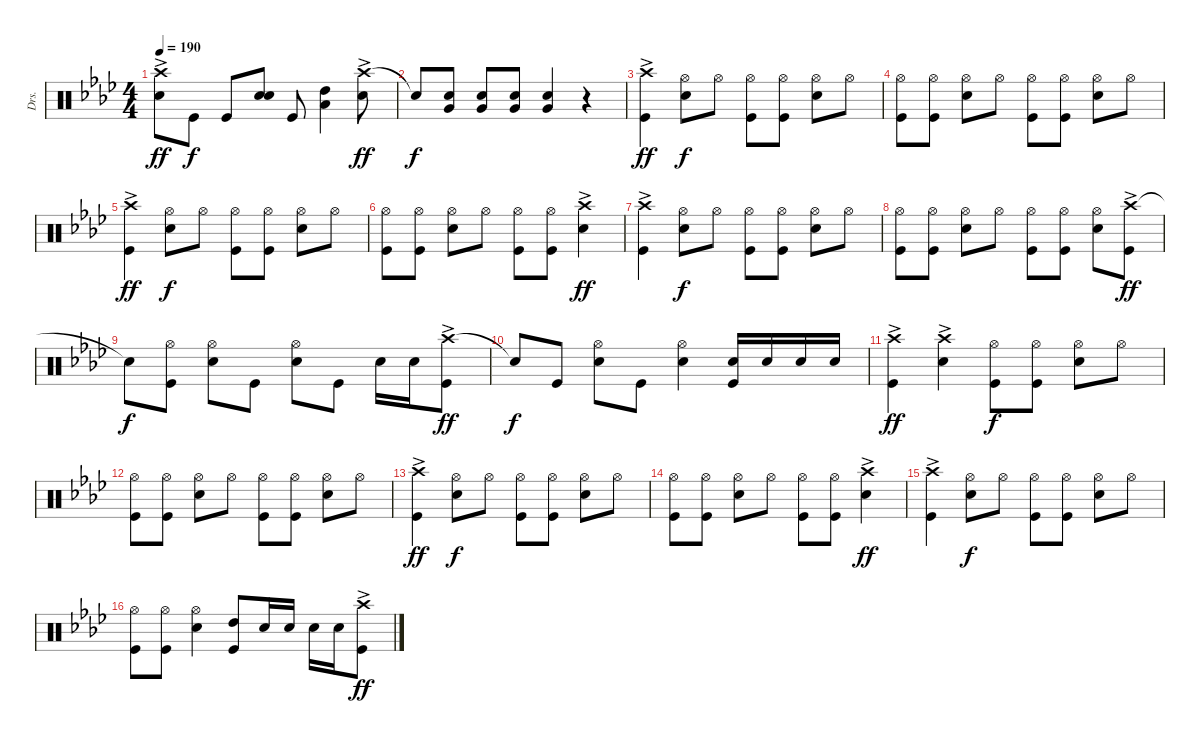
\track ("Drs." "Drs.") {instrument percussion}
\staff {score}
\articulation defaults
\ts (4 4)
\tempo 190
\clef neutral
\ks ab
("Crash high (hit)"{ac} "Snare (hit) 2").8{dy ff} "Kick (hit)".8{dy f} "Kick (hit)".8 ("Snare (hit) 2" "Snare (hit) 2").8 "Kick (hit)".8 ("High Tom (hit)" "Low Tom (hit)").4 ("Crash high (hit)"{ac} "Snare (hit) 2").8{dy ff} |
"Snare (hit)"{t}.8{dy f} ("Snare (hit) 2" "Very Low Tom (hit)").8 ("Snare (hit) 2" "Very Low Tom (hit)").8 ("Snare (hit) 2" "Very Low Tom (hit)").8 ("Snare (hit) 2" "Very Low Tom (hit)").4 r.4 |
("Crash high (hit)"{ac} "Kick (hit)").4{dy ff} ("Hi-Hat (open)" "Snare (hit) 2").8{dy f} "Hi-Hat (open)".8 ("Hi-Hat (open)" "Kick (hit)").8 ("Hi-Hat (open)" "Kick (hit)").8 ("Hi-Hat (open)" "Snare (hit) 2").8 "Hi-Hat (open)".8 |
("Hi-Hat (open)" "Kick (hit)").8 ("Hi-Hat (open)" "Kick (hit)").8 ("Hi-Hat (open)" "Snare (hit) 2").8 "Hi-Hat (open)".8 ("Hi-Hat (open)" "Kick (hit)").8 ("Hi-Hat (open)" "Kick (hit)").8 ("Hi-Hat (open)" "Snare (hit) 2").8 "Hi-Hat (open)".8 |
("Crash high (hit)"{ac} "Kick (hit)").4{dy ff} ("Hi-Hat (open)" "Snare (hit) 2").8{dy f} "Hi-Hat (open)".8 ("Hi-Hat (open)" "Kick (hit)").8 ("Hi-Hat (open)" "Kick (hit)").8 ("Hi-Hat (open)" "Snare (hit) 2").8 "Hi-Hat (open)".8 |
("Hi-Hat (open)" "Kick (hit)").8 ("Hi-Hat (open)" "Kick (hit)").8 ("Hi-Hat (open)" "Snare (hit) 2").8 "Hi-Hat (open)".8 ("Hi-Hat (open)" "Kick (hit)").8 ("Hi-Hat (open)" "Kick (hit)").8 ("Crash high (hit)"{ac} "Snare (hit) 2").4{dy ff} |
("Crash high (hit)"{ac} "Kick (hit)").4 ("Hi-Hat (open)" "Snare (hit) 2").8{dy f} "Hi-Hat (open)".8 ("Hi-Hat (open)" "Kick (hit)").8 ("Hi-Hat (open)" "Kick (hit)").8 ("Hi-Hat (open)" "Snare (hit) 2").8 "Hi-Hat (open)".8 |
("Hi-Hat (open)" "Kick (hit)").8 ("Hi-Hat (open)" "Kick (hit)").8 ("Hi-Hat (open)" "Snare (hit) 2").8 "Hi-Hat (open)".8 ("Hi-Hat (open)" "Kick (hit)").8 ("Hi-Hat (open)" "Kick (hit)").8 ("Hi-Hat (open)" "Snare (hit) 2").8 ("Crash high (hit)"{ac} "Kick (hit)").8{dy ff} |
"Snare (hit)"{t}.8{dy f} ("Hi-Hat (open)" "Kick (hit)").8 ("Hi-Hat (open)" "Snare (hit) 2").8 "Kick (hit)".8 ("Hi-Hat (open)" "Snare (hit) 2").8 "Kick (hit)".8 "Snare (hit) 2".16 "Snare (hit) 2".16 ("Crash high (hit)"{ac} "Kick (hit)").8{dy ff} |
"Snare (hit)"{t}.8{dy f} "Kick (hit)".8 ("Hi-Hat (open)" "Snare (hit) 2").8 "Kick (hit)".8 ("Hi-Hat (open)" "Snare (hit) 2").4 ("Snare (hit) 2" "Kick (hit)").16 "Snare (hit) 2".16 "Snare (hit) 2".16 "Snare (hit) 2".16 |
("Crash high (hit)"{ac} "Kick (hit)").4{dy ff} ("Crash high (hit)"{ac} "Snare (hit) 2").4 ("Hi-Hat (open)" "Kick (hit)").8{dy f} ("Hi-Hat (open)" "Kick (hit)").8 ("Hi-Hat (open)" "Snare (hit) 2").8 "Hi-Hat (open)".8 |
("Hi-Hat (open)" "Kick (hit)").8 ("Hi-Hat (open)" "Kick (hit)").8 ("Hi-Hat (open)" "Snare (hit) 2").8 "Hi-Hat (open)".8 ("Hi-Hat (open)" "Kick (hit)").8 ("Hi-Hat (open)" "Kick (hit)").8 ("Hi-Hat (open)" "Snare (hit) 2").8 "Hi-Hat (open)".8 |
("Crash high (hit)"{ac} "Kick (hit)").4{dy ff} ("Hi-Hat (open)" "Snare (hit) 2").8{dy f} "Hi-Hat (open)".8 ("Hi-Hat (open)" "Kick (hit)").8 ("Hi-Hat (open)" "Kick (hit)").8 ("Hi-Hat (open)" "Snare (hit) 2").8 "Hi-Hat (open)".8 |
("Hi-Hat (open)" "Kick (hit)").8 ("Hi-Hat (open)" "Kick (hit)").8 ("Hi-Hat (open)" "Snare (hit) 2").8 "Hi-Hat (open)".8 ("Hi-Hat (open)" "Kick (hit)").8 ("Hi-Hat (open)" "Kick (hit)").8 ("Crash high (hit)"{ac} "Snare (hit) 2").4{dy ff} |
("Crash high (hit)"{ac} "Kick (hit)").4 ("Hi-Hat (open)" "Snare (hit) 2").8{dy f} "Hi-Hat (open)".8 ("Hi-Hat (open)" "Kick (hit)").8 ("Hi-Hat (open)" "Kick (hit)").8 ("Hi-Hat (open)" "Snare (hit) 2").8 "Hi-Hat (open)".8 |
("Hi-Hat (open)" "Kick (hit)").8 ("Hi-Hat (open)" "Kick (hit)").8 ("Hi-Hat (open)" "Snare (hit) 2").4 ("High Tom (hit)" "Kick (hit)").8 "Snare (hit) 2".16 "Snare (hit) 2".16 "Snare (hit) 2".16 "Snare (hit) 2".16 ("Crash high (hit)"{ac} "Kick (hit)").8{dy ff}
